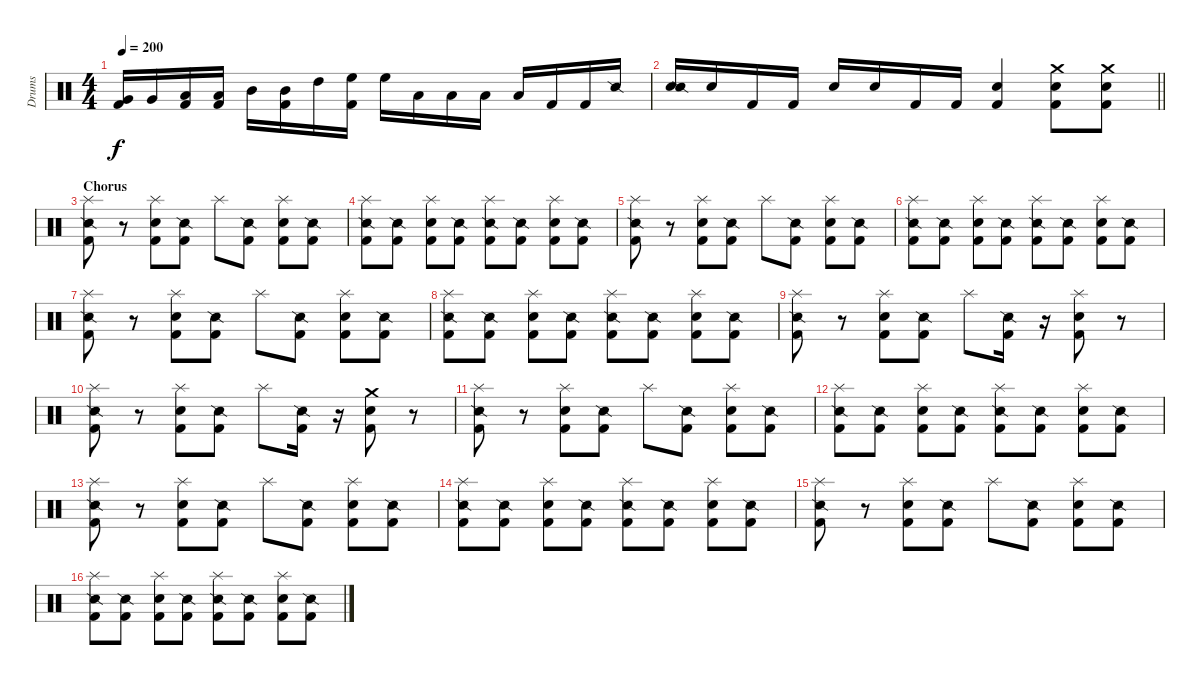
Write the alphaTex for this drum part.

\track ("Drums" "Drums") {instrument percussion}
\staff {score}
\articulation defaults
\ts (4 4)
\tempo 200
\clef neutral
\ks c
("Very Low Tom (hit)" "Kick (hit) 2").16{dy f} "Very Low Tom (hit)".16 ("Low Tom (hit)" "Kick (hit) 2").16 ("Low Tom (hit)" "Kick (hit) 2").16 "Mid Tom (hit)".16 ("Mid Tom (hit)" "Kick (hit) 2").16 "High Tom (hit)".16 ("High Floor Tom (hit)" "Kick (hit) 2").16 "High Floor Tom (hit)".16 "Low Floor Tom (hit)".16 "Low Floor Tom (hit)".16 "Low Floor Tom (hit)".16 "Low Floor Tom (hit)".16 "Kick (hit) 2".16 "Kick (hit) 2".16 "Snare (side stick) 2".16 |
\barLineRight lightlight
("Snare (hit) 2" "Snare (side stick) 2").16 "Snare (hit) 2".16 "Kick (hit) 2".16 "Kick (hit) 2".16 "Electric Snare (hit)".16 "Electric Snare (hit)".16 "Kick (hit) 2".16 "Kick (hit) 2".16 ("Electric Snare (hit)" "Kick (hit) 2").4 ("Crash medium (hit)" "Snare (hit) 2" "Kick (hit) 2").8 ("Crash medium (hit)" "Snare (hit) 2" "Kick (hit) 2").8 |
\section ("" "Chorus")
("Splash (hit)" "Snare (side stick) 2" "Kick (hit) 2").8 r.8 ("Splash (hit)" "Snare (hit) 2" "Kick (hit) 2").8 ("Snare (side stick) 2" "Kick (hit) 2").8 "Splash (hit)".8 ("Snare (side stick) 2" "Kick (hit) 2").8 ("Splash (hit)" "Snare (hit) 2" "Kick (hit) 2").8 ("Snare (side stick) 2" "Kick (hit) 2").8 |
("Splash (hit)" "Snare (side stick) 2" "Kick (hit) 2").8 ("Snare (side stick) 2" "Kick (hit) 2").8 ("Splash (hit)" "Snare (hit) 2" "Kick (hit) 2").8 ("Snare (side stick) 2" "Kick (hit) 2").8 ("Splash (hit)" "Snare (side stick) 2" "Kick (hit) 2").8 ("Snare (side stick) 2" "Kick (hit) 2").8 ("Splash (hit)" "Snare (hit) 2" "Kick (hit) 2").8 ("Snare (side stick) 2" "Kick (hit) 2").8 |
("Splash (hit)" "Snare (side stick) 2" "Kick (hit) 2").8 r.8 ("Splash (hit)" "Snare (hit) 2" "Kick (hit) 2").8 ("Snare (side stick) 2" "Kick (hit) 2").8 "Splash (hit)".8 ("Snare (side stick) 2" "Kick (hit) 2").8 ("Splash (hit)" "Snare (hit) 2" "Kick (hit) 2").8 ("Snare (side stick) 2" "Kick (hit) 2").8 |
("Splash (hit)" "Snare (side stick) 2" "Kick (hit) 2").8 ("Snare (side stick) 2" "Kick (hit) 2").8 ("Splash (hit)" "Snare (hit) 2" "Kick (hit) 2").8 ("Snare (side stick) 2" "Kick (hit) 2").8 ("Splash (hit)" "Snare (side stick) 2" "Kick (hit) 2").8 ("Snare (side stick) 2" "Kick (hit) 2").8 ("Splash (hit)" "Snare (hit) 2" "Kick (hit) 2").8 ("Snare (side stick) 2" "Kick (hit) 2").8 |
("Splash (hit)" "Snare (side stick) 2" "Kick (hit) 2").8 r.8 ("Splash (hit)" "Snare (hit) 2" "Kick (hit) 2").8 ("Snare (side stick) 2" "Kick (hit) 2").8 "Splash (hit)".8 ("Snare (side stick) 2" "Kick (hit) 2").8 ("Splash (hit)" "Snare (hit) 2" "Kick (hit) 2").8 ("Snare (side stick) 2" "Kick (hit) 2").8 |
("Splash (hit)" "Snare (side stick) 2" "Kick (hit) 2").8 ("Snare (side stick) 2" "Kick (hit) 2").8 ("Splash (hit)" "Snare (hit) 2" "Kick (hit) 2").8 ("Snare (side stick) 2" "Kick (hit) 2").8 ("Splash (hit)" "Snare (side stick) 2" "Kick (hit) 2").8 ("Snare (side stick) 2" "Kick (hit) 2").8 ("Splash (hit)" "Snare (hit) 2" "Kick (hit) 2").8 ("Snare (side stick) 2" "Kick (hit) 2").8 |
("Splash (hit)" "Snare (side stick) 2" "Kick (hit) 2").8 r.8 ("Splash (hit)" "Snare (hit) 2" "Kick (hit) 2").8 ("Snare (side stick) 2" "Kick (hit) 2").8 "Splash (hit)".8 ("Snare (side stick) 2" "Kick (hit) 2").16 r.16 ("Splash (hit)" "Snare (hit) 2" "Kick (hit) 2").8 r.8 |
("Splash (hit)" "Snare (side stick) 2" "Kick (hit) 2").8 r.8 ("Splash (hit)" "Snare (hit) 2" "Kick (hit) 2").8 ("Snare (side stick) 2" "Kick (hit) 2").8 "Splash (hit)".8 ("Snare (side stick) 2" "Kick (hit) 2").16 r.16 ("Crash medium (hit)" "Snare (hit) 2" "Kick (hit) 2").8 r.8 |
("Splash (hit)" "Snare (side stick) 2" "Kick (hit) 2").8 r.8 ("Splash (hit)" "Snare (hit) 2" "Kick (hit) 2").8 ("Snare (side stick) 2" "Kick (hit) 2").8 "Splash (hit)".8 ("Snare (side stick) 2" "Kick (hit) 2").8 ("Splash (hit)" "Snare (hit) 2" "Kick (hit) 2").8 ("Snare (side stick) 2" "Kick (hit) 2").8 |
("Splash (hit)" "Snare (side stick) 2" "Kick (hit) 2").8 ("Snare (side stick) 2" "Kick (hit) 2").8 ("Splash (hit)" "Snare (hit) 2" "Kick (hit) 2").8 ("Snare (side stick) 2" "Kick (hit) 2").8 ("Splash (hit)" "Snare (side stick) 2" "Kick (hit) 2").8 ("Snare (side stick) 2" "Kick (hit) 2").8 ("Splash (hit)" "Snare (hit) 2" "Kick (hit) 2").8 ("Snare (side stick) 2" "Kick (hit) 2").8 |
("Splash (hit)" "Snare (side stick) 2" "Kick (hit) 2").8 r.8 ("Splash (hit)" "Snare (hit) 2" "Kick (hit) 2").8 ("Snare (side stick) 2" "Kick (hit) 2").8 "Splash (hit)".8 ("Snare (side stick) 2" "Kick (hit) 2").8 ("Splash (hit)" "Snare (hit) 2" "Kick (hit) 2").8 ("Snare (side stick) 2" "Kick (hit) 2").8 |
("Splash (hit)" "Snare (side stick) 2" "Kick (hit) 2").8 ("Snare (side stick) 2" "Kick (hit) 2").8 ("Splash (hit)" "Snare (hit) 2" "Kick (hit) 2").8 ("Snare (side stick) 2" "Kick (hit) 2").8 ("Splash (hit)" "Snare (side stick) 2" "Kick (hit) 2").8 ("Snare (side stick) 2" "Kick (hit) 2").8 ("Splash (hit)" "Snare (hit) 2" "Kick (hit) 2").8 ("Snare (side stick) 2" "Kick (hit) 2").8 |
("Splash (hit)" "Snare (side stick) 2" "Kick (hit) 2").8 r.8 ("Splash (hit)" "Snare (hit) 2" "Kick (hit) 2").8 ("Snare (side stick) 2" "Kick (hit) 2").8 "Splash (hit)".8 ("Snare (side stick) 2" "Kick (hit) 2").8 ("Splash (hit)" "Snare (hit) 2" "Kick (hit) 2").8 ("Snare (side stick) 2" "Kick (hit) 2").8 |
("Splash (hit)" "Snare (side stick) 2" "Kick (hit) 2").8 ("Snare (side stick) 2" "Kick (hit) 2").8 ("Splash (hit)" "Snare (hit) 2" "Kick (hit) 2").8 ("Snare (side stick) 2" "Kick (hit) 2").8 ("Splash (hit)" "Snare (side stick) 2" "Kick (hit) 2").8 ("Snare (side stick) 2" "Kick (hit) 2").8 ("Splash (hit)" "Snare (hit) 2" "Kick (hit) 2").8 ("Snare (side stick) 2" "Kick (hit) 2").8
